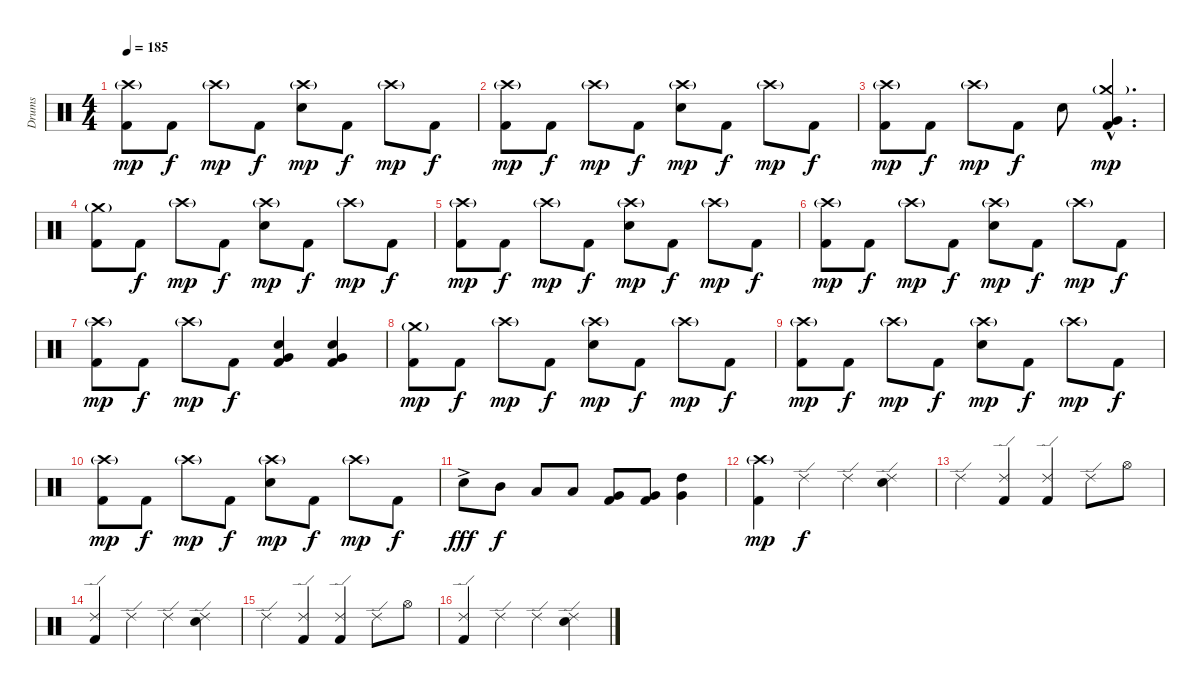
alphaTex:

\track ("Drums" "Drums") {instrument percussion}
\staff {score}
\articulation defaults
\ts (4 4)
\tempo 185
\clef neutral
\ks c
("Crash high (hit)"{g} "Kick (hit) 2").8{dy mp} "Kick (hit) 2".8{dy f} "Crash high (hit)"{g}.8{dy mp} "Kick (hit) 2".8{dy f} ("Crash high (hit)"{g} "Snare (hit) 2").8{dy mp} "Kick (hit) 2".8{dy f} "Crash high (hit)"{g}.8{dy mp} "Kick (hit) 2".8{dy f} |
("Crash high (hit)"{g} "Kick (hit) 2").8{dy mp} "Kick (hit) 2".8{dy f} "Crash high (hit)"{g}.8{dy mp} "Kick (hit) 2".8{dy f} ("Crash high (hit)"{g} "Snare (hit) 2").8{dy mp} "Kick (hit) 2".8{dy f} "Crash high (hit)"{g}.8{dy mp} "Kick (hit) 2".8{dy f} |
("Crash high (hit)"{g} "Kick (hit) 2").8{dy mp} "Kick (hit) 2".8{dy f} "Crash high (hit)"{g}.8{dy mp} "Kick (hit) 2".8{dy f} "Snare (hit) 2".8 ("Crash medium (hit)"{g hac} "Very Low Tom (hit)"{hac} "Kick (hit) 2"{hac}).4{d dy mp} |
("Crash medium (hit)"{g} "Kick (hit) 2").8 "Kick (hit) 2".8{dy f} "Crash high (hit)"{g}.8{dy mp} "Kick (hit) 2".8{dy f} ("Crash high (hit)"{g} "Snare (hit) 2").8{dy mp} "Kick (hit) 2".8{dy f} "Crash high (hit)"{g}.8{dy mp} "Kick (hit) 2".8{dy f} |
("Crash high (hit)"{g} "Kick (hit) 2").8{dy mp} "Kick (hit) 2".8{dy f} "Crash high (hit)"{g}.8{dy mp} "Kick (hit) 2".8{dy f} ("Crash high (hit)"{g} "Snare (hit) 2").8{dy mp} "Kick (hit) 2".8{dy f} "Crash high (hit)"{g}.8{dy mp} "Kick (hit) 2".8{dy f} |
("Crash high (hit)"{g} "Kick (hit) 2").8{dy mp} "Kick (hit) 2".8{dy f} "Crash high (hit)"{g}.8{dy mp} "Kick (hit) 2".8{dy f} ("Crash high (hit)"{g} "Snare (hit) 2").8{dy mp} "Kick (hit) 2".8{dy f} "Crash high (hit)"{g}.8{dy mp} "Kick (hit) 2".8{dy f} |
("Crash high (hit)"{g} "Kick (hit) 2").8{dy mp} "Kick (hit) 2".8{dy f} "Crash high (hit)"{g}.8{dy mp} "Kick (hit) 2".8{dy f} ("Snare (hit) 2" "Very Low Tom (hit)" "Kick (hit) 2").4 ("Snare (hit) 2" "Very Low Tom (hit)" "Kick (hit) 2").4 |
("Crash medium (hit)"{g} "Kick (hit) 2").8{dy mp} "Kick (hit) 2".8{dy f} "Crash high (hit)"{g}.8{dy mp} "Kick (hit) 2".8{dy f} ("Crash high (hit)"{g} "Snare (hit) 2").8{dy mp} "Kick (hit) 2".8{dy f} "Crash high (hit)"{g}.8{dy mp} "Kick (hit) 2".8{dy f} |
("Crash high (hit)"{g} "Kick (hit) 2").8{dy mp} "Kick (hit) 2".8{dy f} "Crash high (hit)"{g}.8{dy mp} "Kick (hit) 2".8{dy f} ("Crash high (hit)"{g} "Snare (hit) 2").8{dy mp} "Kick (hit) 2".8{dy f} "Crash high (hit)"{g}.8{dy mp} "Kick (hit) 2".8{dy f} |
("Crash high (hit)"{g} "Kick (hit) 2").8{dy mp} "Kick (hit) 2".8{dy f} "Crash high (hit)"{g}.8{dy mp} "Kick (hit) 2".8{dy f} ("Crash high (hit)"{g} "Snare (hit) 2").8{dy mp} "Kick (hit) 2".8{dy f} "Crash high (hit)"{g}.8{dy mp} "Kick (hit) 2".8{dy f} |
"Snare (hit) 2"{ac}.8{dy fff} "Mid Tom (hit)".8{dy f} "Low Tom (hit)".8 "Low Tom (hit)".8 ("Very Low Tom (hit)" "Kick (hit) 2").8 ("Very Low Tom (hit)" "Kick (hit) 2").8 ("High Tom (hit)" "Very Low Tom (hit)").4 |
("Crash high (hit)"{g} "Kick (hit) 2").4{dy mp} "Ride (edge) 2".4{dy f} "Ride (edge) 2".4 ("Ride (edge) 2" "Snare (hit) 2").4 |
"Ride (edge) 2".4 ("Ride (edge) 2" "Kick (hit) 2").4 ("Ride (edge) 2" "Kick (hit) 2").4 "Ride (edge) 2".8 "Hi-Hat (open)".8 |
("Ride (edge) 2" "Kick (hit) 2").4 "Ride (edge) 2".4 "Ride (edge) 2".4 ("Ride (edge) 2" "Snare (hit) 2").4 |
"Ride (edge) 2".4 ("Ride (edge) 2" "Kick (hit) 2").4 ("Ride (edge) 2" "Kick (hit) 2").4 "Ride (edge) 2".8 "Hi-Hat (open)".8 |
("Ride (edge) 2" "Kick (hit) 2").4 "Ride (edge) 2".4 "Ride (edge) 2".4 ("Ride (edge) 2" "Snare (hit) 2").4
